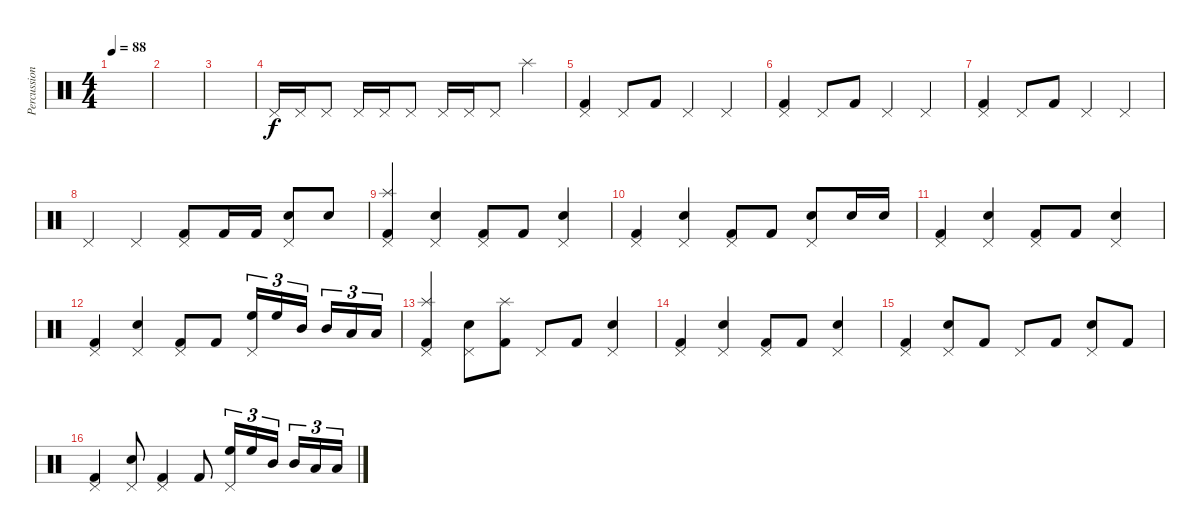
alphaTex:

\track ("Percussion" "Percussion") {instrument percussion}
\staff {score}
\articulation defaults
\ts (4 4)
\tempo 88
\clef neutral
\ks c
|
|
|
"Pedal Hi-Hat (hit)".16 "Pedal Hi-Hat (hit)".16 "Pedal Hi-Hat (hit)".8 "Pedal Hi-Hat (hit)".16 "Pedal Hi-Hat (hit)".16 "Pedal Hi-Hat (hit)".8 "Pedal Hi-Hat (hit)".16 "Pedal Hi-Hat (hit)".16 "Pedal Hi-Hat (hit)".8 "Splash (hit)".4 |
("Pedal Hi-Hat (hit)" "Kick (hit) 2").4 "Pedal Hi-Hat (hit)".8 "Kick (hit) 2".8 "Pedal Hi-Hat (hit)".4 "Pedal Hi-Hat (hit)".4 |
("Pedal Hi-Hat (hit)" "Kick (hit) 2").4 "Pedal Hi-Hat (hit)".8 "Kick (hit) 2".8 "Pedal Hi-Hat (hit)".4 "Pedal Hi-Hat (hit)".4 |
("Pedal Hi-Hat (hit)" "Kick (hit) 2").4 "Pedal Hi-Hat (hit)".8 "Kick (hit) 2".8 "Pedal Hi-Hat (hit)".4 "Pedal Hi-Hat (hit)".4 |
"Pedal Hi-Hat (hit)".4 "Pedal Hi-Hat (hit)".4 ("Pedal Hi-Hat (hit)" "Kick (hit) 2").8 "Kick (hit) 2".16 "Kick (hit) 2".16 ("Pedal Hi-Hat (hit)" "Snare (hit) 2").8 "Snare (hit) 2".8 |
("Pedal Hi-Hat (hit)" "Splash (hit)" "Kick (hit) 2").4 ("Pedal Hi-Hat (hit)" "Snare (hit) 2").4 ("Pedal Hi-Hat (hit)" "Kick (hit) 2").8 "Kick (hit) 2".8 ("Pedal Hi-Hat (hit)" "Snare (hit) 2").4 |
("Pedal Hi-Hat (hit)" "Kick (hit) 2").4 ("Pedal Hi-Hat (hit)" "Snare (hit) 2").4 ("Pedal Hi-Hat (hit)" "Kick (hit) 2").8 "Kick (hit) 2".8 ("Pedal Hi-Hat (hit)" "Snare (hit) 2").8 "Snare (hit) 2".16 "Snare (hit) 2".16 |
("Pedal Hi-Hat (hit)" "Kick (hit) 2").4 ("Pedal Hi-Hat (hit)" "Snare (hit) 2").4 ("Pedal Hi-Hat (hit)" "Kick (hit) 2").8 "Kick (hit) 2".8 ("Pedal Hi-Hat (hit)" "Snare (hit) 2").4 |
("Pedal Hi-Hat (hit)" "Kick (hit) 2").4 ("Pedal Hi-Hat (hit)" "Snare (hit) 2").4 ("Pedal Hi-Hat (hit)" "Kick (hit) 2").8 "Kick (hit) 2".8 ("Pedal Hi-Hat (hit)" "High Floor Tom (hit)").16{tu (3 2)} "High Floor Tom (hit)".16{tu (3 2)} "Mid Tom (hit)".16{tu (3 2)} "Mid Tom (hit)".16{tu (3 2)} "Low Tom (hit)".16{tu (3 2)} "Low Tom (hit)".16{tu (3 2)} |
("Pedal Hi-Hat (hit)" "Splash (hit)" "Kick (hit) 2").4 ("Pedal Hi-Hat (hit)" "Snare (hit) 2").8 ("Splash (hit)" "Kick (hit) 2").8 "Pedal Hi-Hat (hit)".8 "Kick (hit) 2".8 ("Pedal Hi-Hat (hit)" "Snare (hit) 2").4 |
("Pedal Hi-Hat (hit)" "Kick (hit) 2").4 ("Pedal Hi-Hat (hit)" "Snare (hit) 2").4 ("Pedal Hi-Hat (hit)" "Kick (hit) 2").8 "Kick (hit) 2".8 ("Pedal Hi-Hat (hit)" "Snare (hit) 2").4 |
("Pedal Hi-Hat (hit)" "Kick (hit) 2").4 ("Pedal Hi-Hat (hit)" "Snare (hit) 2").8 "Kick (hit) 2".8 "Pedal Hi-Hat (hit)".8 "Kick (hit) 2".8 ("Pedal Hi-Hat (hit)" "Snare (hit) 2").8 "Kick (hit) 2".8 |
("Pedal Hi-Hat (hit)" "Kick (hit) 2").4 ("Pedal Hi-Hat (hit)" "Snare (hit) 2").8 ("Pedal Hi-Hat (hit)" "Kick (hit) 2").4 "Kick (hit) 2".8 ("Pedal Hi-Hat (hit)" "High Floor Tom (hit)").16{tu (3 2)} "High Floor Tom (hit)".16{tu (3 2)} "Mid Tom (hit)".16{tu (3 2)} "Mid Tom (hit)".16{tu (3 2)} "Low Tom (hit)".16{tu (3 2)} "Low Tom (hit)".16{tu (3 2)}
